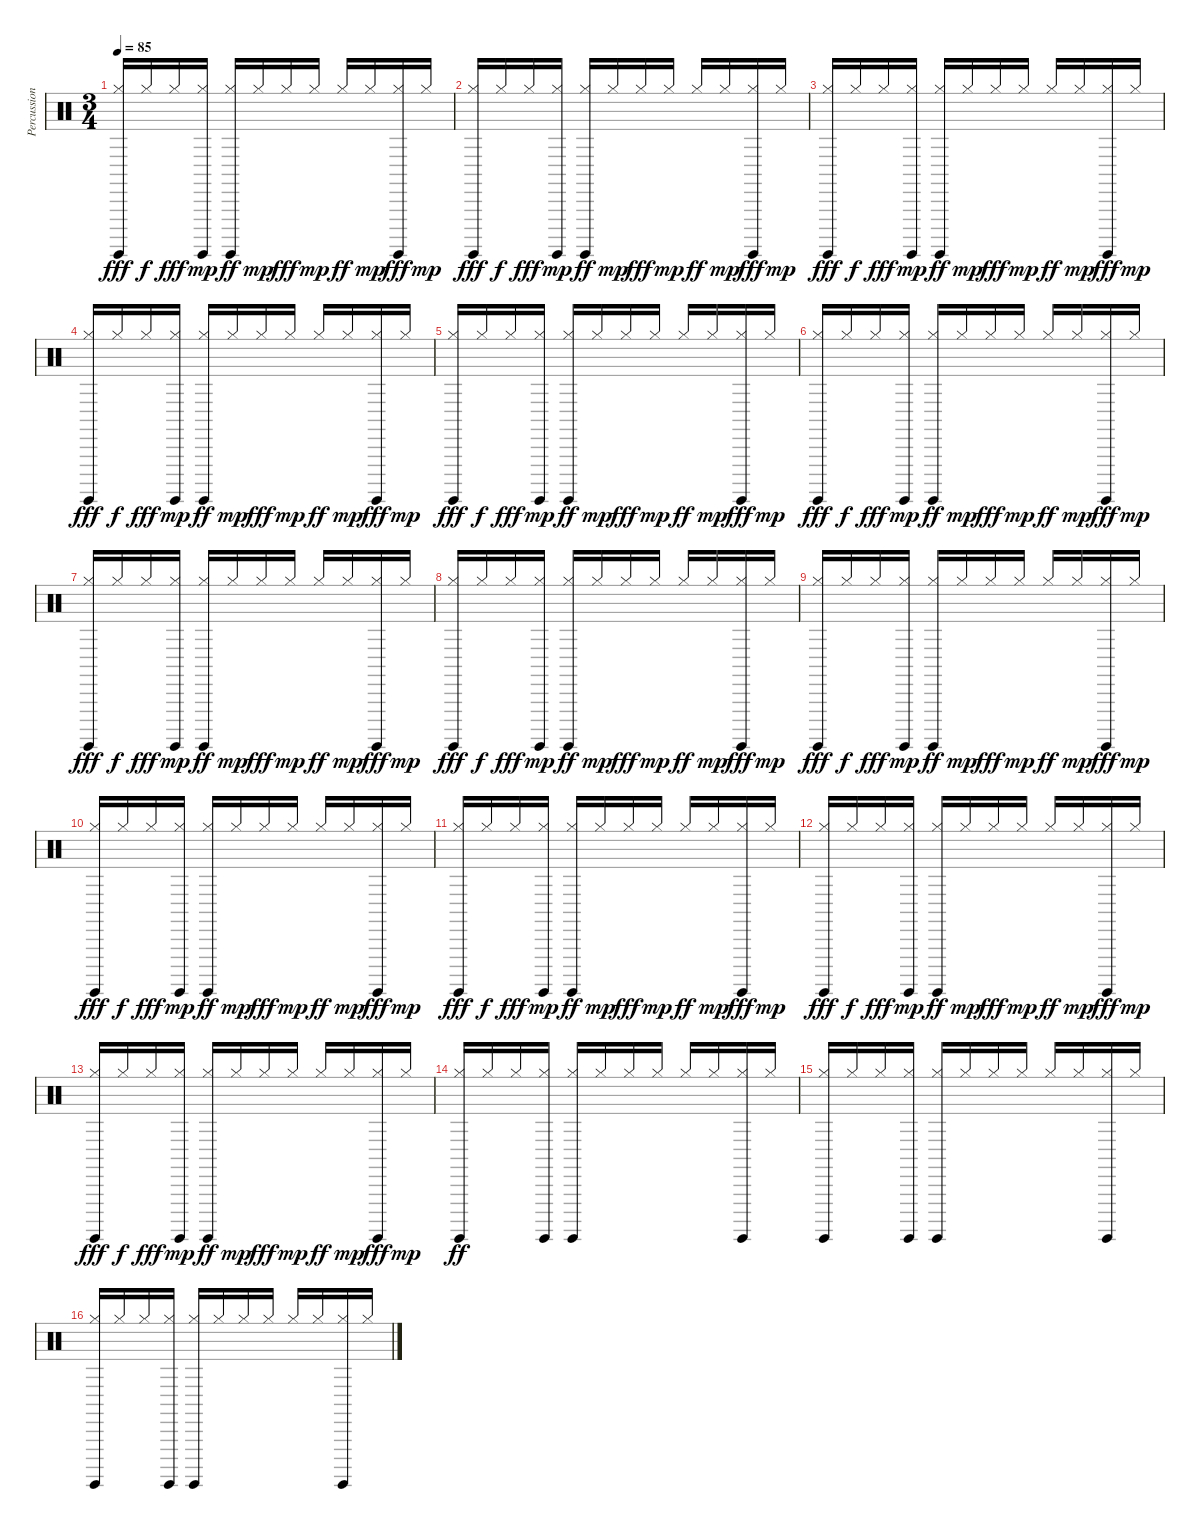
\track ("Percussion" "Percussion") {instrument percussion}
\staff {score}
\articulation defaults
\ts (3 4)
\tempo 85
\clef neutral
\ks c
("Surdo (hit)" "Hi-Hat (closed)").16{dy fff} "Hi-Hat (closed)".16{dy f} "Hi-Hat (closed)".16{dy fff} ("Surdo (hit)" "Hi-Hat (closed)").16{dy mp} ("Surdo (hit)" "Hi-Hat (closed)").16{dy ff} "Hi-Hat (closed)".16{dy mp} "Hi-Hat (closed)".16{dy fff} "Hi-Hat (closed)".16{dy mp} "Hi-Hat (closed)".16{dy ff} "Hi-Hat (closed)".16{dy mp} ("Surdo (hit)" "Hi-Hat (closed)").16{dy fff} "Hi-Hat (closed)".16{dy mp} |
("Surdo (hit)" "Hi-Hat (closed)").16{dy fff volume 7} "Hi-Hat (closed)".16{dy f} "Hi-Hat (closed)".16{dy fff} ("Surdo (hit)" "Hi-Hat (closed)").16{dy mp} ("Surdo (hit)" "Hi-Hat (closed)").16{dy ff} "Hi-Hat (closed)".16{dy mp} "Hi-Hat (closed)".16{dy fff} "Hi-Hat (closed)".16{dy mp} "Hi-Hat (closed)".16{dy ff} "Hi-Hat (closed)".16{dy mp} ("Surdo (hit)" "Hi-Hat (closed)").16{dy fff} "Hi-Hat (closed)".16{dy mp} |
("Surdo (hit)" "Hi-Hat (closed)").16{dy fff} "Hi-Hat (closed)".16{dy f} "Hi-Hat (closed)".16{dy fff} ("Surdo (hit)" "Hi-Hat (closed)").16{dy mp} ("Surdo (hit)" "Hi-Hat (closed)").16{dy ff} "Hi-Hat (closed)".16{dy mp} "Hi-Hat (closed)".16{dy fff} "Hi-Hat (closed)".16{dy mp} "Hi-Hat (closed)".16{dy ff} "Hi-Hat (closed)".16{dy mp} ("Surdo (hit)" "Hi-Hat (closed)").16{dy fff} "Hi-Hat (closed)".16{dy mp} |
("Surdo (hit)" "Hi-Hat (closed)").16{dy fff} "Hi-Hat (closed)".16{dy f} "Hi-Hat (closed)".16{dy fff} ("Surdo (hit)" "Hi-Hat (closed)").16{dy mp} ("Surdo (hit)" "Hi-Hat (closed)").16{dy ff} "Hi-Hat (closed)".16{dy mp} "Hi-Hat (closed)".16{dy fff} "Hi-Hat (closed)".16{dy mp} "Hi-Hat (closed)".16{dy ff} "Hi-Hat (closed)".16{dy mp} ("Surdo (hit)" "Hi-Hat (closed)").16{dy fff} "Hi-Hat (closed)".16{dy mp} |
("Surdo (hit)" "Hi-Hat (closed)").16{dy fff} "Hi-Hat (closed)".16{dy f} "Hi-Hat (closed)".16{dy fff} ("Surdo (hit)" "Hi-Hat (closed)").16{dy mp} ("Surdo (hit)" "Hi-Hat (closed)").16{dy ff} "Hi-Hat (closed)".16{dy mp} "Hi-Hat (closed)".16{dy fff} "Hi-Hat (closed)".16{dy mp} "Hi-Hat (closed)".16{dy ff} "Hi-Hat (closed)".16{dy mp} ("Surdo (hit)" "Hi-Hat (closed)").16{dy fff} "Hi-Hat (closed)".16{dy mp} |
("Surdo (hit)" "Hi-Hat (closed)").16{dy fff volume 7} "Hi-Hat (closed)".16{dy f} "Hi-Hat (closed)".16{dy fff} ("Surdo (hit)" "Hi-Hat (closed)").16{dy mp} ("Surdo (hit)" "Hi-Hat (closed)").16{dy ff} "Hi-Hat (closed)".16{dy mp} "Hi-Hat (closed)".16{dy fff} "Hi-Hat (closed)".16{dy mp} "Hi-Hat (closed)".16{dy ff} "Hi-Hat (closed)".16{dy mp} ("Surdo (hit)" "Hi-Hat (closed)").16{dy fff} "Hi-Hat (closed)".16{dy mp} |
("Surdo (hit)" "Hi-Hat (closed)").16{dy fff} "Hi-Hat (closed)".16{dy f} "Hi-Hat (closed)".16{dy fff} ("Surdo (hit)" "Hi-Hat (closed)").16{dy mp} ("Surdo (hit)" "Hi-Hat (closed)").16{dy ff} "Hi-Hat (closed)".16{dy mp} "Hi-Hat (closed)".16{dy fff} "Hi-Hat (closed)".16{dy mp} "Hi-Hat (closed)".16{dy ff} "Hi-Hat (closed)".16{dy mp} ("Surdo (hit)" "Hi-Hat (closed)").16{dy fff} "Hi-Hat (closed)".16{dy mp} |
("Surdo (hit)" "Hi-Hat (closed)").16{dy fff} "Hi-Hat (closed)".16{dy f} "Hi-Hat (closed)".16{dy fff} ("Surdo (hit)" "Hi-Hat (closed)").16{dy mp} ("Surdo (hit)" "Hi-Hat (closed)").16{dy ff} "Hi-Hat (closed)".16{dy mp} "Hi-Hat (closed)".16{dy fff} "Hi-Hat (closed)".16{dy mp} "Hi-Hat (closed)".16{dy ff} "Hi-Hat (closed)".16{dy mp} ("Surdo (hit)" "Hi-Hat (closed)").16{dy fff} "Hi-Hat (closed)".16{dy mp} |
("Surdo (hit)" "Hi-Hat (closed)").16{dy fff} "Hi-Hat (closed)".16{dy f} "Hi-Hat (closed)".16{dy fff} ("Surdo (hit)" "Hi-Hat (closed)").16{dy mp} ("Surdo (hit)" "Hi-Hat (closed)").16{dy ff} "Hi-Hat (closed)".16{dy mp} "Hi-Hat (closed)".16{dy fff} "Hi-Hat (closed)".16{dy mp} "Hi-Hat (closed)".16{dy ff} "Hi-Hat (closed)".16{dy mp} ("Surdo (hit)" "Hi-Hat (closed)").16{dy fff} "Hi-Hat (closed)".16{dy mp} |
("Surdo (hit)" "Hi-Hat (closed)").16{dy fff volume 7} "Hi-Hat (closed)".16{dy f} "Hi-Hat (closed)".16{dy fff} ("Surdo (hit)" "Hi-Hat (closed)").16{dy mp} ("Surdo (hit)" "Hi-Hat (closed)").16{dy ff} "Hi-Hat (closed)".16{dy mp} "Hi-Hat (closed)".16{dy fff} "Hi-Hat (closed)".16{dy mp} "Hi-Hat (closed)".16{dy ff} "Hi-Hat (closed)".16{dy mp} ("Surdo (hit)" "Hi-Hat (closed)").16{dy fff} "Hi-Hat (closed)".16{dy mp} |
("Surdo (hit)" "Hi-Hat (closed)").16{dy fff} "Hi-Hat (closed)".16{dy f} "Hi-Hat (closed)".16{dy fff} ("Surdo (hit)" "Hi-Hat (closed)").16{dy mp} ("Surdo (hit)" "Hi-Hat (closed)").16{dy ff} "Hi-Hat (closed)".16{dy mp} "Hi-Hat (closed)".16{dy fff} "Hi-Hat (closed)".16{dy mp} "Hi-Hat (closed)".16{dy ff} "Hi-Hat (closed)".16{dy mp} ("Surdo (hit)" "Hi-Hat (closed)").16{dy fff} "Hi-Hat (closed)".16{dy mp} |
("Surdo (hit)" "Hi-Hat (closed)").16{dy fff} "Hi-Hat (closed)".16{dy f} "Hi-Hat (closed)".16{dy fff} ("Surdo (hit)" "Hi-Hat (closed)").16{dy mp} ("Surdo (hit)" "Hi-Hat (closed)").16{dy ff} "Hi-Hat (closed)".16{dy mp} "Hi-Hat (closed)".16{dy fff} "Hi-Hat (closed)".16{dy mp} "Hi-Hat (closed)".16{dy ff} "Hi-Hat (closed)".16{dy mp} ("Surdo (hit)" "Hi-Hat (closed)").16{dy fff} "Hi-Hat (closed)".16{dy mp} |
("Surdo (hit)" "Hi-Hat (closed)").16{dy fff} "Hi-Hat (closed)".16{dy f} "Hi-Hat (closed)".16{dy fff} ("Surdo (hit)" "Hi-Hat (closed)").16{dy mp} ("Surdo (hit)" "Hi-Hat (closed)").16{dy ff} "Hi-Hat (closed)".16{dy mp} "Hi-Hat (closed)".16{dy fff} "Hi-Hat (closed)".16{dy mp} "Hi-Hat (closed)".16{dy ff} "Hi-Hat (closed)".16{dy mp} ("Surdo (hit)" "Hi-Hat (closed)").16{dy fff} "Hi-Hat (closed)".16{dy mp} |
("Surdo (hit)" "Hi-Hat (closed)").16{dy ff volume 7} "Hi-Hat (closed)".16 "Hi-Hat (closed)".16 ("Surdo (hit)" "Hi-Hat (closed)").16 ("Surdo (hit)" "Hi-Hat (closed)").16 "Hi-Hat (closed)".16 "Hi-Hat (closed)".16 "Hi-Hat (closed)".16 "Hi-Hat (closed)".16 "Hi-Hat (closed)".16 ("Surdo (hit)" "Hi-Hat (closed)").16 "Hi-Hat (closed)".16 |
("Surdo (hit)" "Hi-Hat (closed)").16 "Hi-Hat (closed)".16 "Hi-Hat (closed)".16 ("Surdo (hit)" "Hi-Hat (closed)").16 ("Surdo (hit)" "Hi-Hat (closed)").16 "Hi-Hat (closed)".16 "Hi-Hat (closed)".16 "Hi-Hat (closed)".16 "Hi-Hat (closed)".16 "Hi-Hat (closed)".16 ("Surdo (hit)" "Hi-Hat (closed)").16 "Hi-Hat (closed)".16 |
("Surdo (hit)" "Hi-Hat (closed)").16 "Hi-Hat (closed)".16 "Hi-Hat (closed)".16 ("Surdo (hit)" "Hi-Hat (closed)").16 ("Surdo (hit)" "Hi-Hat (closed)").16 "Hi-Hat (closed)".16 "Hi-Hat (closed)".16 "Hi-Hat (closed)".16 "Hi-Hat (closed)".16 "Hi-Hat (closed)".16 ("Surdo (hit)" "Hi-Hat (closed)").16 "Hi-Hat (closed)".16
